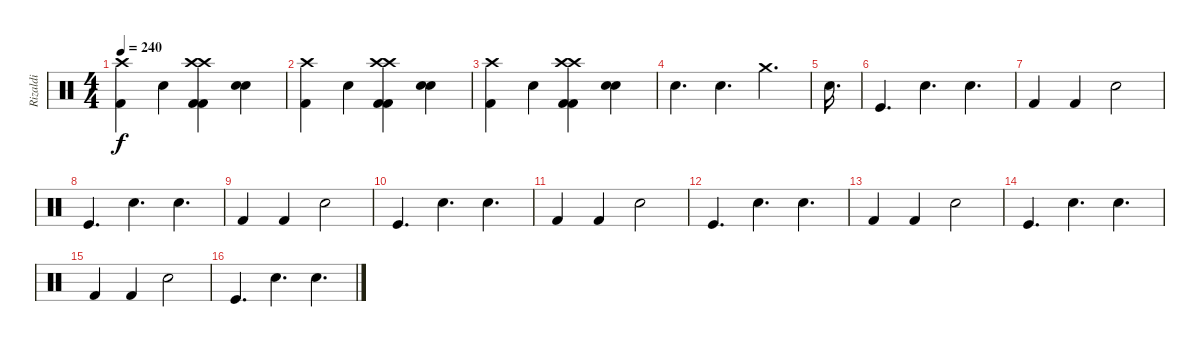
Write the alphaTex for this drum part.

\track ("Rizaldi" "Rizaldi") {instrument percussion}
\staff {score}
\articulation defaults
\ts (4 4)
\tempo 240
\clef neutral
\ks c
("Kick (hit) 2" "Crash high (hit)").4{dy f} "Snare (hit) 2".4 ("Kick (hit) 2" "Kick (hit) 2" "Crash high (hit)" "Crash high (hit)").4 ("Snare (hit) 2" "Snare (hit) 2").4 |
("Kick (hit) 2" "Crash high (hit)").4 "Snare (hit) 2".4 ("Kick (hit) 2" "Kick (hit) 2" "Crash high (hit)" "Crash high (hit)").4 ("Snare (hit) 2" "Snare (hit) 2").4 |
("Kick (hit) 2" "Crash high (hit)").4 "Snare (hit) 2".4 ("Kick (hit) 2" "Kick (hit) 2" "Crash high (hit)" "Crash high (hit)").4 ("Snare (hit) 2" "Snare (hit) 2").4 |
"Electric Snare (hit)".4{d} "Electric Snare (hit)".4{d} "Crash medium (hit)".4{d} |
"Snare (hit) 2".16{d} |
"Kick (hit)".4{d} "Electric Snare (hit)".4{d} "Electric Snare (hit)".4{d} |
"Kick (hit) 2".4 "Kick (hit) 2".4 "Snare (hit) 2".2 |
"Kick (hit)".4{d} "Electric Snare (hit)".4{d} "Electric Snare (hit)".4{d} |
"Kick (hit) 2".4 "Kick (hit) 2".4 "Snare (hit) 2".2 |
"Kick (hit)".4{d} "Electric Snare (hit)".4{d} "Electric Snare (hit)".4{d} |
"Kick (hit) 2".4 "Kick (hit) 2".4 "Snare (hit) 2".2 |
"Kick (hit)".4{d} "Electric Snare (hit)".4{d} "Electric Snare (hit)".4{d} |
"Kick (hit) 2".4 "Kick (hit) 2".4 "Snare (hit) 2".2 |
"Kick (hit)".4{d} "Electric Snare (hit)".4{d} "Electric Snare (hit)".4{d} |
"Kick (hit) 2".4 "Kick (hit) 2".4 "Snare (hit) 2".2 |
"Kick (hit)".4{d} "Electric Snare (hit)".4{d} "Electric Snare (hit)".4{d}
